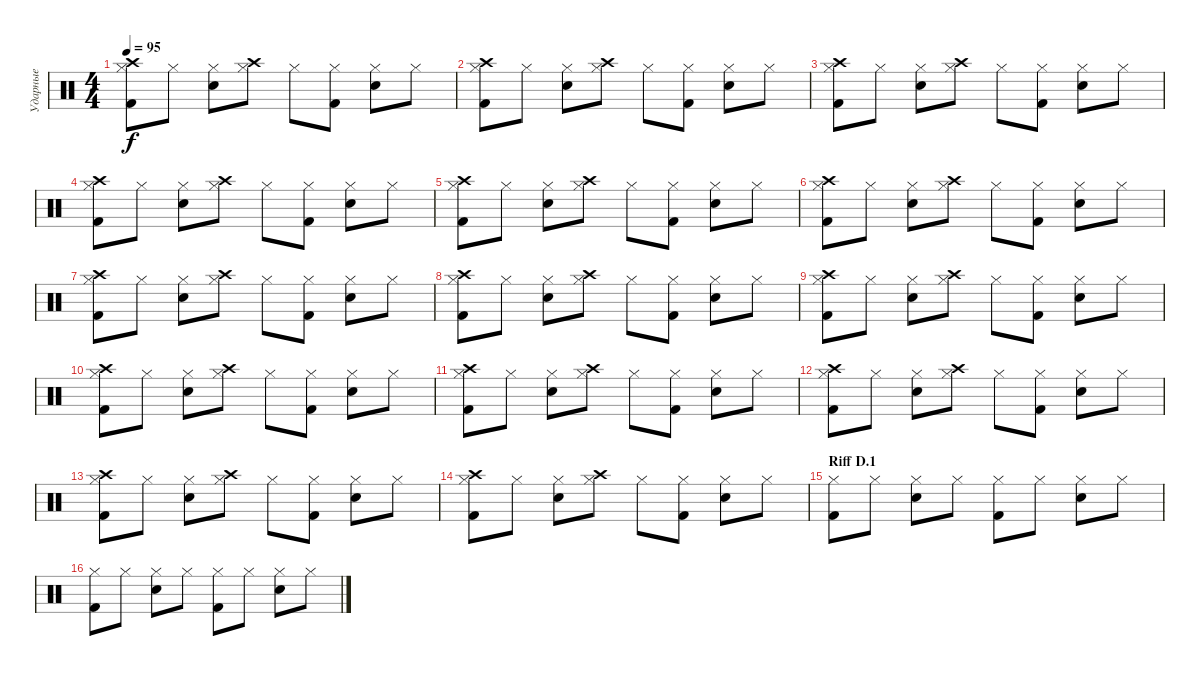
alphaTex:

\track ("Ударные" "Ударные") {instrument percussion}
\staff {score}
\articulation defaults
\ts (4 4)
\tempo 95
\clef neutral
\ks c
("Crash high (hit)" "Hi-Hat (closed)" "Kick (hit) 2").8{dy f} "Hi-Hat (closed)".8 ("Hi-Hat (closed)" "Snare (hit) 2").8 ("Crash high (hit)" "Hi-Hat (closed)").8 "Hi-Hat (closed)".8 ("Hi-Hat (closed)" "Kick (hit) 2").8 ("Hi-Hat (closed)" "Snare (hit) 2").8 "Hi-Hat (closed)".8 |
("Crash high (hit)" "Hi-Hat (closed)" "Kick (hit) 2").8 "Hi-Hat (closed)".8 ("Hi-Hat (closed)" "Snare (hit) 2").8 ("Crash high (hit)" "Hi-Hat (closed)").8 "Hi-Hat (closed)".8 ("Hi-Hat (closed)" "Kick (hit) 2").8 ("Hi-Hat (closed)" "Snare (hit) 2").8 "Hi-Hat (closed)".8 |
("Crash high (hit)" "Hi-Hat (closed)" "Kick (hit) 2").8 "Hi-Hat (closed)".8 ("Hi-Hat (closed)" "Snare (hit) 2").8 ("Crash high (hit)" "Hi-Hat (closed)").8 "Hi-Hat (closed)".8 ("Hi-Hat (closed)" "Kick (hit) 2").8 ("Hi-Hat (closed)" "Snare (hit) 2").8 "Hi-Hat (closed)".8 |
("Crash high (hit)" "Hi-Hat (closed)" "Kick (hit) 2").8 "Hi-Hat (closed)".8 ("Hi-Hat (closed)" "Snare (hit) 2").8 ("Crash high (hit)" "Hi-Hat (closed)").8 "Hi-Hat (closed)".8 ("Hi-Hat (closed)" "Kick (hit) 2").8 ("Hi-Hat (closed)" "Snare (hit) 2").8 "Hi-Hat (closed)".8 |
("Crash high (hit)" "Hi-Hat (closed)" "Kick (hit) 2").8 "Hi-Hat (closed)".8 ("Hi-Hat (closed)" "Snare (hit) 2").8 ("Crash high (hit)" "Hi-Hat (closed)").8 "Hi-Hat (closed)".8 ("Hi-Hat (closed)" "Kick (hit) 2").8 ("Hi-Hat (closed)" "Snare (hit) 2").8 "Hi-Hat (closed)".8 |
("Crash high (hit)" "Hi-Hat (closed)" "Kick (hit) 2").8 "Hi-Hat (closed)".8 ("Hi-Hat (closed)" "Snare (hit) 2").8 ("Crash high (hit)" "Hi-Hat (closed)").8 "Hi-Hat (closed)".8 ("Hi-Hat (closed)" "Kick (hit) 2").8 ("Hi-Hat (closed)" "Snare (hit) 2").8 "Hi-Hat (closed)".8 |
("Crash high (hit)" "Hi-Hat (closed)" "Kick (hit) 2").8 "Hi-Hat (closed)".8 ("Hi-Hat (closed)" "Snare (hit) 2").8 ("Crash high (hit)" "Hi-Hat (closed)").8 "Hi-Hat (closed)".8 ("Hi-Hat (closed)" "Kick (hit) 2").8 ("Hi-Hat (closed)" "Snare (hit) 2").8 "Hi-Hat (closed)".8 |
("Crash high (hit)" "Hi-Hat (closed)" "Kick (hit) 2").8 "Hi-Hat (closed)".8 ("Hi-Hat (closed)" "Snare (hit) 2").8 ("Crash high (hit)" "Hi-Hat (closed)").8 "Hi-Hat (closed)".8 ("Hi-Hat (closed)" "Kick (hit) 2").8 ("Hi-Hat (closed)" "Snare (hit) 2").8 "Hi-Hat (closed)".8 |
("Crash high (hit)" "Hi-Hat (closed)" "Kick (hit) 2").8 "Hi-Hat (closed)".8 ("Hi-Hat (closed)" "Snare (hit) 2").8 ("Crash high (hit)" "Hi-Hat (closed)").8 "Hi-Hat (closed)".8 ("Hi-Hat (closed)" "Kick (hit) 2").8 ("Hi-Hat (closed)" "Snare (hit) 2").8 "Hi-Hat (closed)".8 |
("Crash high (hit)" "Hi-Hat (closed)" "Kick (hit) 2").8 "Hi-Hat (closed)".8 ("Hi-Hat (closed)" "Snare (hit) 2").8 ("Crash high (hit)" "Hi-Hat (closed)").8 "Hi-Hat (closed)".8 ("Hi-Hat (closed)" "Kick (hit) 2").8 ("Hi-Hat (closed)" "Snare (hit) 2").8 "Hi-Hat (closed)".8 |
("Crash high (hit)" "Hi-Hat (closed)" "Kick (hit) 2").8 "Hi-Hat (closed)".8 ("Hi-Hat (closed)" "Snare (hit) 2").8 ("Crash high (hit)" "Hi-Hat (closed)").8 "Hi-Hat (closed)".8 ("Hi-Hat (closed)" "Kick (hit) 2").8 ("Hi-Hat (closed)" "Snare (hit) 2").8 "Hi-Hat (closed)".8 |
("Crash high (hit)" "Hi-Hat (closed)" "Kick (hit) 2").8 "Hi-Hat (closed)".8 ("Hi-Hat (closed)" "Snare (hit) 2").8 ("Crash high (hit)" "Hi-Hat (closed)").8 "Hi-Hat (closed)".8 ("Hi-Hat (closed)" "Kick (hit) 2").8 ("Hi-Hat (closed)" "Snare (hit) 2").8 "Hi-Hat (closed)".8 |
("Crash high (hit)" "Hi-Hat (closed)" "Kick (hit) 2").8 "Hi-Hat (closed)".8 ("Hi-Hat (closed)" "Snare (hit) 2").8 ("Crash high (hit)" "Hi-Hat (closed)").8 "Hi-Hat (closed)".8 ("Hi-Hat (closed)" "Kick (hit) 2").8 ("Hi-Hat (closed)" "Snare (hit) 2").8 "Hi-Hat (closed)".8 |
("Crash high (hit)" "Hi-Hat (closed)" "Kick (hit) 2").8 "Hi-Hat (closed)".8 ("Hi-Hat (closed)" "Snare (hit) 2").8 ("Crash high (hit)" "Hi-Hat (closed)").8 "Hi-Hat (closed)".8 ("Hi-Hat (closed)" "Kick (hit) 2").8 ("Hi-Hat (closed)" "Snare (hit) 2").8 "Hi-Hat (closed)".8 |
\section ("" "Riff D.1")
("Hi-Hat (closed)" "Kick (hit) 2").8 "Hi-Hat (closed)".8 ("Hi-Hat (closed)" "Snare (hit) 2").8 "Hi-Hat (closed)".8 ("Hi-Hat (closed)" "Kick (hit) 2").8 "Hi-Hat (closed)".8 ("Hi-Hat (closed)" "Snare (hit) 2").8 "Hi-Hat (closed)".8 |
("Hi-Hat (closed)" "Kick (hit) 2").8 "Hi-Hat (closed)".8 ("Hi-Hat (closed)" "Snare (hit) 2").8 "Hi-Hat (closed)".8 ("Hi-Hat (closed)" "Kick (hit) 2").8 "Hi-Hat (closed)".8 ("Hi-Hat (closed)" "Snare (hit) 2").8 "Hi-Hat (closed)".8
